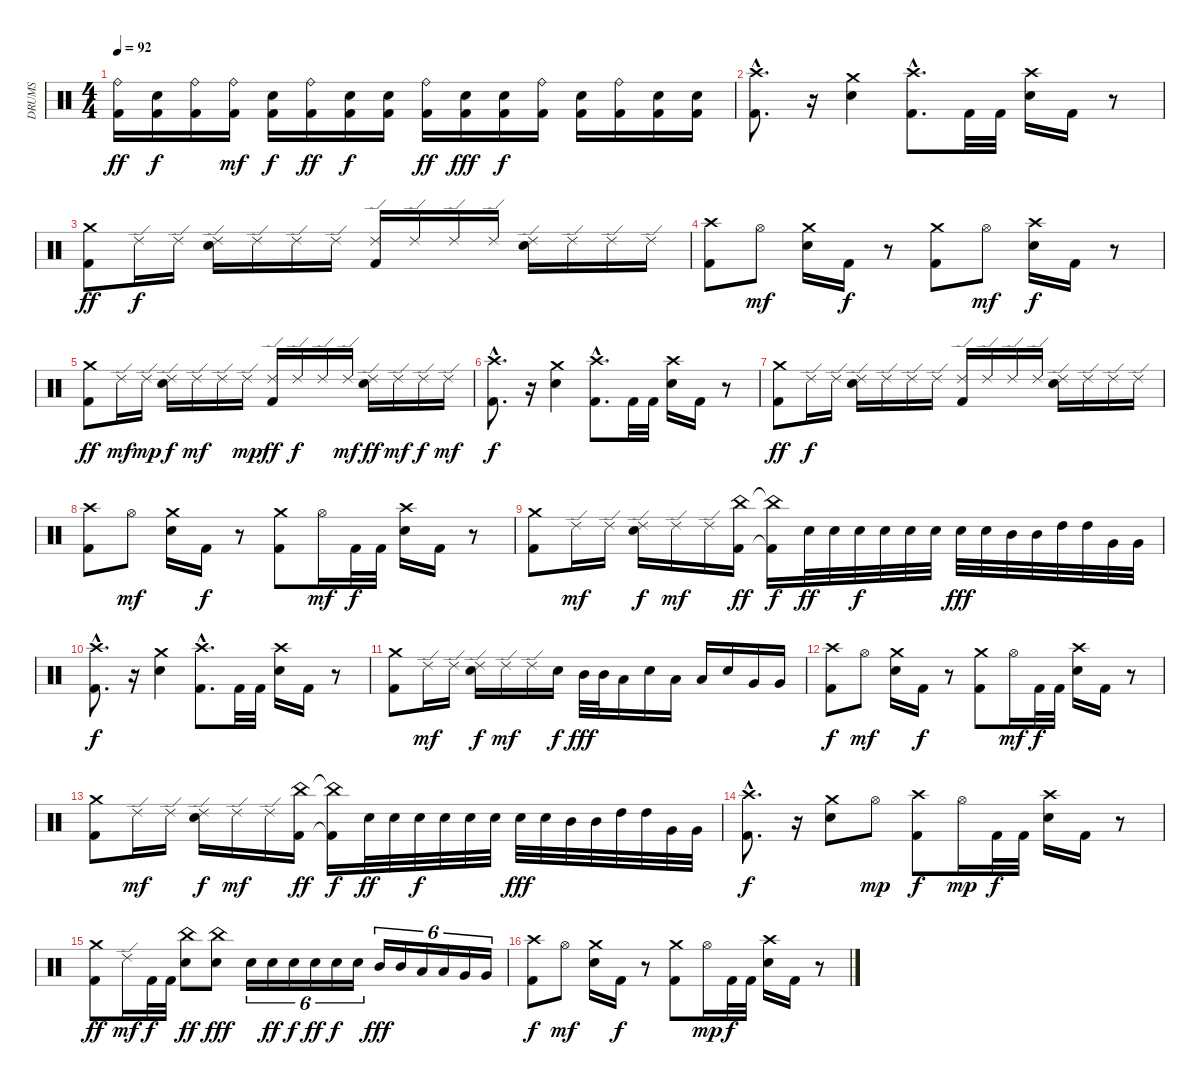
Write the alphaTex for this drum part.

\track ("DRUMS" "DRUMS") {instrument percussion}
\staff {score}
\articulation defaults
\ts (4 4)
\tempo 92
\clef neutral
\ks c
("Ride (bell)" "Kick (hit) 2").16{dy ff} ("Electric Snare (hit)" "Kick (hit) 2").16{dy f} ("Ride (bell)" "Kick (hit) 2").16 ("Ride (bell)" "Kick (hit) 2").16{dy mf} ("Electric Snare (hit)" "Kick (hit) 2").16{dy f} ("Ride (bell)" "Kick (hit) 2").16{dy ff} ("Electric Snare (hit)" "Kick (hit) 2").16{dy f} ("Electric Snare (hit)" "Kick (hit) 2").16 ("Ride (bell)" "Kick (hit) 2").16{dy ff} ("Electric Snare (hit)" "Kick (hit) 2").16{dy fff} ("Electric Snare (hit)" "Kick (hit) 2").16{dy f} ("Ride (bell)" "Kick (hit) 2").16 ("Electric Snare (hit)" "Kick (hit) 2").16 ("Ride (bell)" "Kick (hit) 2").16 ("Electric Snare (hit)" "Kick (hit) 2").16 ("Electric Snare (hit)" "Kick (hit) 2").16 |
("Crash high (hit)"{hac} "Kick (hit) 2"{hac}).8{d} r.16{volume 0} ("Crash medium (hit)" "Electric Snare (hit)").4{volume 14} ("Crash high (hit)"{hac} "Kick (hit) 2"{hac}).8{d} "Kick (hit) 2".32 "Kick (hit) 2".32 ("Crash high (hit)" "Electric Snare (hit)").16 "Kick (hit) 2".16 r.8{volume 0} |
("Crash medium (hit)" "Kick (hit) 2").8{dy ff volume 14} "Ride (edge) 2".16{dy f} "Ride (edge) 2".16 ("Ride (edge) 2" "Electric Snare (hit)").16 "Ride (edge) 2".16 "Ride (edge) 2".16 "Ride (edge) 2".16 ("Ride (edge) 2" "Kick (hit) 2").16 "Ride (edge) 2".16 "Ride (edge) 2".16 "Ride (edge) 2".16 ("Ride (edge) 2" "Electric Snare (hit)").16 "Ride (edge) 2".16 "Ride (edge) 2".16 "Ride (edge) 2".16 |
("Crash high (hit)" "Kick (hit) 2").8 "Hi-Hat (open)".8{dy mf} ("Crash medium (hit)" "Electric Snare (hit)").16 "Kick (hit) 2".16{dy f} r.8 ("Crash medium (hit)" "Kick (hit) 2").8 "Hi-Hat (open)".8{dy mf} ("Crash high (hit)" "Electric Snare (hit)").16{dy f} "Kick (hit) 2".16 r.8 |
("Crash medium (hit)" "Kick (hit) 2").8{dy ff} "Ride (edge) 2".16{dy mf} "Ride (edge) 2".16{dy mp} ("Ride (edge) 2" "Electric Snare (hit)").16{dy f} "Ride (edge) 2".16{dy mf} "Ride (edge) 2".16 "Ride (edge) 2".16{dy mp} ("Ride (edge) 2" "Kick (hit) 2").16{dy ff} "Ride (edge) 2".16{dy f} "Ride (edge) 2".16 "Ride (edge) 2".16{dy mf} ("Ride (edge) 2" "Electric Snare (hit)").16{dy ff} "Ride (edge) 2".16{dy mf} "Ride (edge) 2".16{dy f} "Ride (edge) 2".16{dy mf} |
("Crash high (hit)"{hac} "Kick (hit) 2"{hac}).8{d dy f} r.16{volume 0} ("Crash medium (hit)" "Electric Snare (hit)").4{volume 14} ("Crash high (hit)"{hac} "Kick (hit) 2"{hac}).8{d} "Kick (hit) 2".32 "Kick (hit) 2".32 ("Crash high (hit)" "Electric Snare (hit)").16 "Kick (hit) 2".16 r.8{volume 0} |
("Crash medium (hit)" "Kick (hit) 2").8{dy ff volume 14} "Ride (edge) 2".16{dy f} "Ride (edge) 2".16 ("Ride (edge) 2" "Electric Snare (hit)").16 "Ride (edge) 2".16 "Ride (edge) 2".16 "Ride (edge) 2".16 ("Ride (edge) 2" "Kick (hit) 2").16 "Ride (edge) 2".16 "Ride (edge) 2".16 "Ride (edge) 2".16 ("Ride (edge) 2" "Electric Snare (hit)").16 "Ride (edge) 2".16 "Ride (edge) 2".16 "Ride (edge) 2".16 |
("Crash high (hit)" "Kick (hit) 2").8 "Hi-Hat (open)".8{dy mf} ("Crash medium (hit)" "Electric Snare (hit)").16 "Kick (hit) 2".16{dy f} r.8 ("Crash medium (hit)" "Kick (hit) 2").8 "Hi-Hat (open)".16{dy mf} "Kick (hit) 2".32{dy f} "Kick (hit) 2".32 ("Crash high (hit)" "Electric Snare (hit)").16 "Kick (hit) 2".16 r.8 |
("Crash medium (hit)" "Kick (hit) 2").8 "Ride (edge) 2".16{dy mf} "Ride (edge) 2".16 ("Ride (edge) 2" "Electric Snare (hit)").16{dy f} "Ride (edge) 2".16{dy mf} "Ride (edge) 2".16 ("China (hit)" "Kick (hit) 2").16{dy ff} ("China (hit)"{t} "Kick (hit) 2"{t}).16{dy f} "Electric Snare (hit)".32{dy ff} "Electric Snare (hit)".32 "Electric Snare (hit)".32{dy f} "Electric Snare (hit)".32 "Electric Snare (hit)".32 "Electric Snare (hit)".32 "Electric Snare (hit)".32{dy fff} "Electric Snare (hit)".32 "Mid Tom (hit)".32 "Mid Tom (hit)".32 "High Tom (hit)".32 "High Tom (hit)".32 "Very Low Tom (hit)".32 "Very Low Tom (hit)".32 |
("Crash high (hit)"{hac} "Kick (hit) 2"{hac}).8{d dy f} r.16{volume 0} ("Crash medium (hit)" "Electric Snare (hit)").4{volume 14} ("Crash high (hit)"{hac} "Kick (hit) 2"{hac}).8{d} "Kick (hit) 2".32 "Kick (hit) 2".32 ("Crash high (hit)" "Electric Snare (hit)").16 "Kick (hit) 2".16 r.8{volume 0} |
("Crash medium (hit)" "Kick (hit) 2").8{volume 14} "Ride (edge) 2".16{dy mf} "Ride (edge) 2".16 ("Ride (edge) 2" "Electric Snare (hit)").16{dy f} "Ride (edge) 2".16{dy mf} "Ride (edge) 2".16 "Electric Snare (hit)".16{dy f} "Mid Tom (hit)".32{dy fff} "Mid Tom (hit)".32 "Low Tom (hit)".16 "Electric Snare (hit)".16 "Low Tom (hit)".16 "Low Tom (hit)".16 "Electric Snare (hit)".16 "Very Low Tom (hit)".16 "Very Low Tom (hit)".16 |
("Crash high (hit)" "Kick (hit) 2").8{dy f} "Hi-Hat (open)".8{dy mf} ("Crash medium (hit)" "Electric Snare (hit)").16 "Kick (hit) 2".16{dy f} r.8 ("Crash medium (hit)" "Kick (hit) 2").8 "Hi-Hat (open)".16{dy mf} "Kick (hit) 2".32{dy f} "Kick (hit) 2".32 ("Crash high (hit)" "Electric Snare (hit)").16 "Kick (hit) 2".16 r.8 |
("Crash medium (hit)" "Kick (hit) 2").8 "Ride (edge) 2".16{dy mf} "Ride (edge) 2".16 ("Ride (edge) 2" "Electric Snare (hit)").16{dy f} "Ride (edge) 2".16{dy mf} "Ride (edge) 2".16 ("China (hit)" "Kick (hit) 2").16{dy ff} ("China (hit)"{t} "Kick (hit) 2"{t}).16{dy f} "Electric Snare (hit)".32{dy ff} "Electric Snare (hit)".32 "Electric Snare (hit)".32{dy f} "Electric Snare (hit)".32 "Electric Snare (hit)".32 "Electric Snare (hit)".32 "Electric Snare (hit)".32{dy fff} "Electric Snare (hit)".32 "Mid Tom (hit)".32 "Mid Tom (hit)".32 "High Tom (hit)".32 "High Tom (hit)".32 "Very Low Tom (hit)".32 "Very Low Tom (hit)".32 |
("Crash high (hit)"{hac} "Kick (hit) 2"{hac}).8{d dy f} r.16{volume 0} ("Crash medium (hit)" "Electric Snare (hit)").8{volume 14} "Hi-Hat (open)".8{dy mp} ("Crash high (hit)" "Kick (hit) 2").8{dy f} "Hi-Hat (open)".16{dy mp} "Kick (hit) 2".32{dy f} "Kick (hit) 2".32 ("Crash high (hit)" "Electric Snare (hit)").16 "Kick (hit) 2".16 r.8{volume 0} |
("Crash medium (hit)" "Kick (hit) 2").8{dy ff volume 14} "Ride (edge) 2".16{dy mf} "Kick (hit) 2".32{dy f} "Kick (hit) 2".32 ("China (hit)" "Electric Snare (hit)").8{dy ff} ("China (hit)" "Electric Snare (hit)").8{dy fff} "Electric Snare (hit)".16{tu (6 4)} "Electric Snare (hit)".16{tu (6 4) dy ff} "Electric Snare (hit)".16{tu (6 4) dy f} "Electric Snare (hit)".16{tu (6 4) dy ff} "Electric Snare (hit)".16{tu (6 4) dy f} "Electric Snare (hit)".16{tu (6 4)} "Mid Tom (hit)".16{tu (6 4) dy fff} "Mid Tom (hit)".16{tu (6 4)} "Low Tom (hit)".16{tu (6 4)} "Low Tom (hit)".16{tu (6 4)} "Very Low Tom (hit)".16{tu (6 4)} "Very Low Tom (hit)".16{tu (6 4)} |
("Crash high (hit)" "Kick (hit) 2").8{dy f} "Hi-Hat (open)".8{dy mf} ("Crash medium (hit)" "Electric Snare (hit)").16 "Kick (hit) 2".16{dy f} r.8 ("Crash medium (hit)" "Kick (hit) 2").8 "Hi-Hat (open)".16{dy mp} "Kick (hit) 2".32{dy f} "Kick (hit) 2".32 ("Crash high (hit)" "Electric Snare (hit)").16 "Kick (hit) 2".16 r.8
